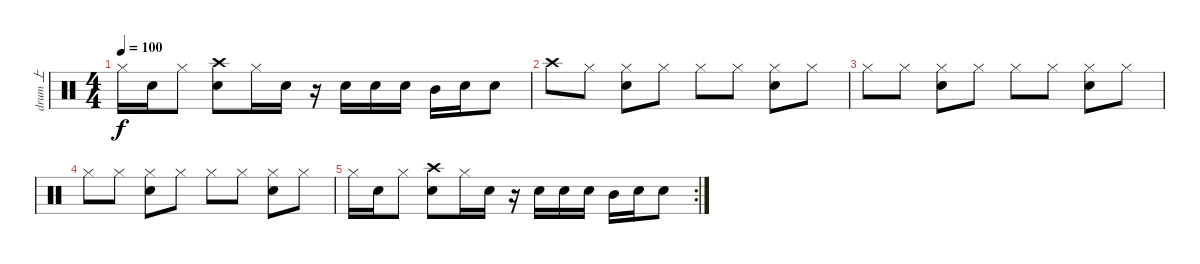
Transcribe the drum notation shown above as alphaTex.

\track ("drum 上" "drum 上") {instrument percussion}
\staff {score}
\articulation defaults
\ts (4 4)
\tempo 100
\clef neutral
\ks c "Hi-Hat (closed)".16{dy f} "Snare (hit) 2".16 "Hi-Hat (closed)".8
("Crash high (hit)" "Snare (hit) 2").8 "Hi-Hat (closed)".16 "Snare (hit) 2".16 r.16 "Snare (hit) 2".16 "Snare (hit) 2".16 "Snare (hit) 2".16 "Mid Tom (hit)".16 "Snare (hit) 2".16 "Snare (hit) 2".8 |
"Crash high (hit)".8 "Hi-Hat (closed)".8 ("Hi-Hat (closed)" "Snare (hit) 2").8 "Hi-Hat (closed)".8 "Hi-Hat (closed)".8 "Hi-Hat (closed)".8 ("Hi-Hat (closed)" "Snare (hit) 2").8 "Hi-Hat (closed)".8 |
"Hi-Hat (closed)".8 "Hi-Hat (closed)".8 ("Hi-Hat (closed)" "Snare (hit) 2").8 "Hi-Hat (closed)".8 "Hi-Hat (closed)".8 "Hi-Hat (closed)".8 ("Hi-Hat (closed)" "Snare (hit) 2").8 "Hi-Hat (closed)".8 |
"Hi-Hat (closed)".8 "Hi-Hat (closed)".8 ("Hi-Hat (closed)" "Snare (hit) 2").8 "Hi-Hat (closed)".8 "Hi-Hat (closed)".8 "Hi-Hat (closed)".8 ("Hi-Hat (closed)" "Snare (hit) 2").8 "Hi-Hat (closed)".8 |
\rc 2 "Hi-Hat (closed)".16 "Snare (hit) 2".16 "Hi-Hat (closed)".8
("Crash high (hit)" "Snare (hit) 2").8 "Hi-Hat (closed)".16 "Snare (hit) 2".16 r.16 "Snare (hit) 2".16 "Snare (hit) 2".16 "Snare (hit) 2".16 "Mid Tom (hit)".16 "Snare (hit) 2".16 "Snare (hit) 2".8
